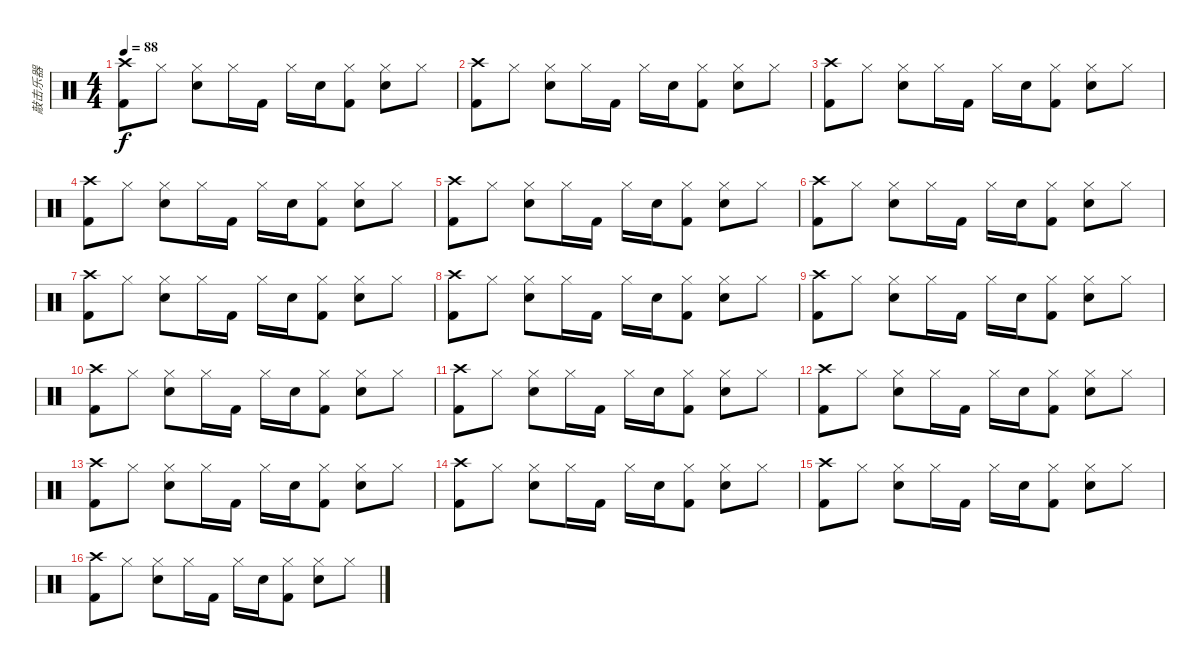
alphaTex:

\track ("敲击乐器" "敲击乐器") {instrument percussion}
\staff {score}
\articulation defaults
\ts (4 4)
\tempo 88
\clef neutral
\ks c
("Crash high (hit)" "Kick (hit) 2").8{dy f} "Hi-Hat (closed)".8 ("Hi-Hat (closed)" "Electric Snare (hit)").8 "Hi-Hat (closed)".16 "Kick (hit) 2".16 "Hi-Hat (closed)".16 "Electric Snare (hit)".16 ("Hi-Hat (closed)" "Kick (hit) 2").8 ("Hi-Hat (closed)" "Electric Snare (hit)").8 "Hi-Hat (closed)".8 |
("Crash high (hit)" "Kick (hit) 2").8 "Hi-Hat (closed)".8 ("Hi-Hat (closed)" "Electric Snare (hit)").8 "Hi-Hat (closed)".16 "Kick (hit) 2".16 "Hi-Hat (closed)".16 "Electric Snare (hit)".16 ("Hi-Hat (closed)" "Kick (hit) 2").8 ("Hi-Hat (closed)" "Electric Snare (hit)").8 "Hi-Hat (closed)".8 |
("Crash high (hit)" "Kick (hit) 2").8 "Hi-Hat (closed)".8 ("Hi-Hat (closed)" "Electric Snare (hit)").8 "Hi-Hat (closed)".16 "Kick (hit) 2".16 "Hi-Hat (closed)".16 "Electric Snare (hit)".16 ("Hi-Hat (closed)" "Kick (hit) 2").8 ("Hi-Hat (closed)" "Electric Snare (hit)").8 "Hi-Hat (closed)".8 |
("Crash high (hit)" "Kick (hit) 2").8 "Hi-Hat (closed)".8 ("Hi-Hat (closed)" "Electric Snare (hit)").8 "Hi-Hat (closed)".16 "Kick (hit) 2".16 "Hi-Hat (closed)".16 "Electric Snare (hit)".16 ("Hi-Hat (closed)" "Kick (hit) 2").8 ("Hi-Hat (closed)" "Electric Snare (hit)").8 "Hi-Hat (closed)".8 |
("Crash high (hit)" "Kick (hit) 2").8 "Hi-Hat (closed)".8 ("Hi-Hat (closed)" "Electric Snare (hit)").8 "Hi-Hat (closed)".16 "Kick (hit) 2".16 "Hi-Hat (closed)".16 "Electric Snare (hit)".16 ("Hi-Hat (closed)" "Kick (hit) 2").8 ("Hi-Hat (closed)" "Electric Snare (hit)").8 "Hi-Hat (closed)".8 |
("Crash high (hit)" "Kick (hit) 2").8 "Hi-Hat (closed)".8 ("Hi-Hat (closed)" "Electric Snare (hit)").8 "Hi-Hat (closed)".16 "Kick (hit) 2".16 "Hi-Hat (closed)".16 "Electric Snare (hit)".16 ("Hi-Hat (closed)" "Kick (hit) 2").8 ("Hi-Hat (closed)" "Electric Snare (hit)").8 "Hi-Hat (closed)".8 |
("Crash high (hit)" "Kick (hit) 2").8 "Hi-Hat (closed)".8 ("Hi-Hat (closed)" "Electric Snare (hit)").8 "Hi-Hat (closed)".16 "Kick (hit) 2".16 "Hi-Hat (closed)".16 "Electric Snare (hit)".16 ("Hi-Hat (closed)" "Kick (hit) 2").8 ("Hi-Hat (closed)" "Electric Snare (hit)").8 "Hi-Hat (closed)".8 |
("Crash high (hit)" "Kick (hit) 2").8 "Hi-Hat (closed)".8 ("Hi-Hat (closed)" "Electric Snare (hit)").8 "Hi-Hat (closed)".16 "Kick (hit) 2".16 "Hi-Hat (closed)".16 "Electric Snare (hit)".16 ("Hi-Hat (closed)" "Kick (hit) 2").8 ("Hi-Hat (closed)" "Electric Snare (hit)").8 "Hi-Hat (closed)".8 |
("Crash high (hit)" "Kick (hit) 2").8 "Hi-Hat (closed)".8 ("Hi-Hat (closed)" "Electric Snare (hit)").8 "Hi-Hat (closed)".16 "Kick (hit) 2".16 "Hi-Hat (closed)".16 "Electric Snare (hit)".16 ("Hi-Hat (closed)" "Kick (hit) 2").8 ("Hi-Hat (closed)" "Electric Snare (hit)").8 "Hi-Hat (closed)".8 |
("Crash high (hit)" "Kick (hit) 2").8 "Hi-Hat (closed)".8 ("Hi-Hat (closed)" "Electric Snare (hit)").8 "Hi-Hat (closed)".16 "Kick (hit) 2".16 "Hi-Hat (closed)".16 "Electric Snare (hit)".16 ("Hi-Hat (closed)" "Kick (hit) 2").8 ("Hi-Hat (closed)" "Electric Snare (hit)").8 "Hi-Hat (closed)".8 |
("Crash high (hit)" "Kick (hit) 2").8 "Hi-Hat (closed)".8 ("Hi-Hat (closed)" "Electric Snare (hit)").8 "Hi-Hat (closed)".16 "Kick (hit) 2".16 "Hi-Hat (closed)".16 "Electric Snare (hit)".16 ("Hi-Hat (closed)" "Kick (hit) 2").8 ("Hi-Hat (closed)" "Electric Snare (hit)").8 "Hi-Hat (closed)".8 |
("Crash high (hit)" "Kick (hit) 2").8 "Hi-Hat (closed)".8 ("Hi-Hat (closed)" "Electric Snare (hit)").8 "Hi-Hat (closed)".16 "Kick (hit) 2".16 "Hi-Hat (closed)".16 "Electric Snare (hit)".16 ("Hi-Hat (closed)" "Kick (hit) 2").8 ("Hi-Hat (closed)" "Electric Snare (hit)").8 "Hi-Hat (closed)".8 |
("Crash high (hit)" "Kick (hit) 2").8 "Hi-Hat (closed)".8 ("Hi-Hat (closed)" "Electric Snare (hit)").8 "Hi-Hat (closed)".16 "Kick (hit) 2".16 "Hi-Hat (closed)".16 "Electric Snare (hit)".16 ("Hi-Hat (closed)" "Kick (hit) 2").8 ("Hi-Hat (closed)" "Electric Snare (hit)").8 "Hi-Hat (closed)".8 |
("Crash high (hit)" "Kick (hit) 2").8 "Hi-Hat (closed)".8 ("Hi-Hat (closed)" "Electric Snare (hit)").8 "Hi-Hat (closed)".16 "Kick (hit) 2".16 "Hi-Hat (closed)".16 "Electric Snare (hit)".16 ("Hi-Hat (closed)" "Kick (hit) 2").8 ("Hi-Hat (closed)" "Electric Snare (hit)").8 "Hi-Hat (closed)".8 |
("Crash high (hit)" "Kick (hit) 2").8 "Hi-Hat (closed)".8 ("Hi-Hat (closed)" "Electric Snare (hit)").8 "Hi-Hat (closed)".16 "Kick (hit) 2".16 "Hi-Hat (closed)".16 "Electric Snare (hit)".16 ("Hi-Hat (closed)" "Kick (hit) 2").8 ("Hi-Hat (closed)" "Electric Snare (hit)").8 "Hi-Hat (closed)".8 |
("Crash high (hit)" "Kick (hit) 2").8 "Hi-Hat (closed)".8 ("Hi-Hat (closed)" "Electric Snare (hit)").8 "Hi-Hat (closed)".16 "Kick (hit) 2".16 "Hi-Hat (closed)".16 "Electric Snare (hit)".16 ("Hi-Hat (closed)" "Kick (hit) 2").8 ("Hi-Hat (closed)" "Electric Snare (hit)").8 "Hi-Hat (closed)".8
